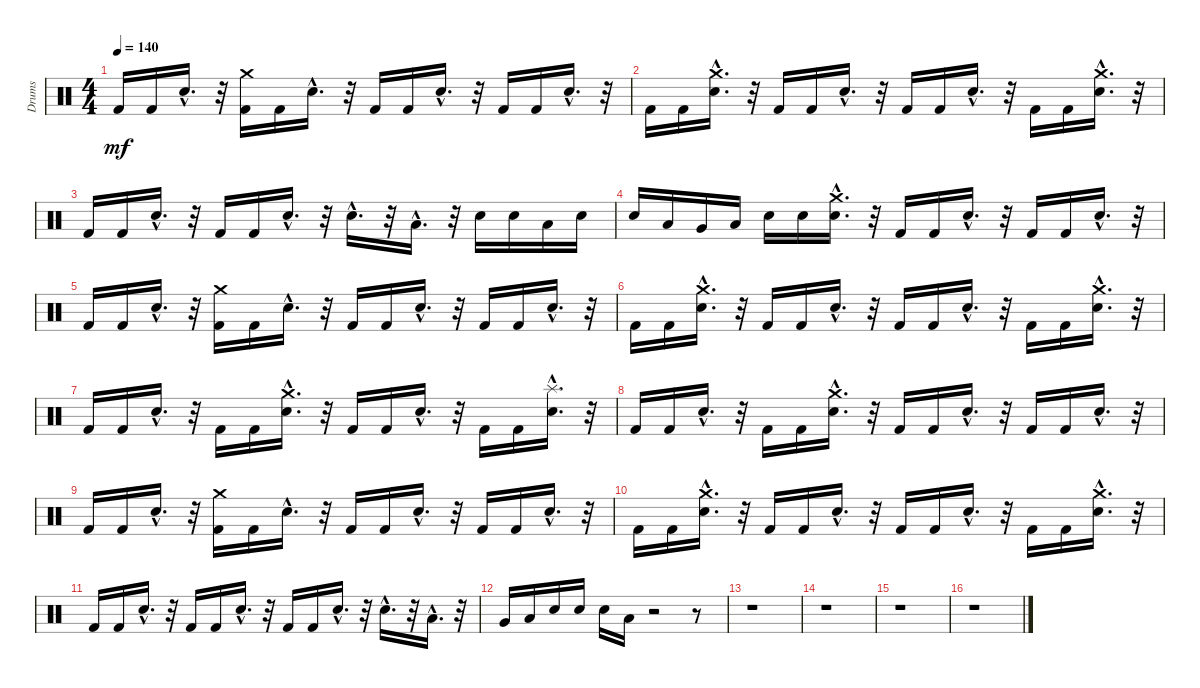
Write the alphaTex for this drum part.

\track ("Drums" "Drums") {instrument percussion}
\staff {score}
\articulation defaults
\ts (4 4)
\tempo 140
\clef neutral
\ks c "Kick (hit) 2".16{dy mf} "Kick (hit) 2".16 "Electric Snare (hit)"{hac}.16{d}
r.32 ("Crash medium (hit)" "Kick (hit) 2").16 "Kick (hit) 2".16 "Electric Snare (hit)"{hac}.16{d} r.32 "Kick (hit) 2".16 "Kick (hit) 2".16 "Electric Snare (hit)"{hac}.16{d} r.32 "Kick (hit) 2".16 "Kick (hit) 2".16 "Electric Snare (hit)"{hac}.16{d} r.32 |
"Kick (hit) 2".16 "Kick (hit) 2".16 ("Crash medium (hit)"{hac} "Electric Snare (hit)"{hac}).16{d} r.32 "Kick (hit) 2".16 "Kick (hit) 2".16 "Electric Snare (hit)"{hac}.16{d} r.32 "Kick (hit) 2".16 "Kick (hit) 2".16 "Electric Snare (hit)"{hac}.16{d} r.32 "Kick (hit) 2".16 "Kick (hit) 2".16 ("Electric Snare (hit)"{hac} "Crash medium (hit)"{hac}).16{d} r.32 |
"Kick (hit) 2".16 "Kick (hit) 2".16 "Electric Snare (hit)"{hac}.16{d} r.32 "Kick (hit) 2".16 "Kick (hit) 2".16 "Snare (hit) 2"{hac}.16{d} r.32 "Electric Snare (hit)"{hac}.16{d} r.32 "Low Floor Tom (hit)"{hac}.16{d} r.32 "Snare (hit) 2".16 "Electric Snare (hit)".16 "Low Floor Tom (hit)".16 "Snare (hit) 2".16 |
"Electric Snare (hit)".16 "Low Floor Tom (hit)".16 "Very Low Tom (hit)".16 "Low Floor Tom (hit)".16 "Electric Snare (hit)".16 "Snare (hit) 2".16 ("Crash medium (hit)"{hac} "Electric Snare (hit)"{hac}).16{d} r.32 "Kick (hit) 2".16 "Kick (hit) 2".16 "Electric Snare (hit)"{hac}.16{d} r.32 "Kick (hit) 2".16 "Kick (hit) 2".16 "Electric Snare (hit)"{hac}.16{d} r.32 |
"Kick (hit) 2".16 "Kick (hit) 2".16 "Electric Snare (hit)"{hac}.16{d} r.32 ("Crash medium (hit)" "Kick (hit) 2").16 "Kick (hit) 2".16 "Electric Snare (hit)"{hac}.16{d} r.32 "Kick (hit) 2".16 "Kick (hit) 2".16 "Electric Snare (hit)"{hac}.16{d} r.32 "Kick (hit) 2".16 "Kick (hit) 2".16 "Electric Snare (hit)"{hac}.16{d} r.32 |
"Kick (hit) 2".16 "Kick (hit) 2".16 ("Crash medium (hit)"{hac} "Electric Snare (hit)"{hac}).16{d} r.32 "Kick (hit) 2".16 "Kick (hit) 2".16 "Electric Snare (hit)"{hac}.16{d} r.32 "Kick (hit) 2".16 "Kick (hit) 2".16 "Electric Snare (hit)"{hac}.16{d} r.32 "Kick (hit) 2".16 "Kick (hit) 2".16 ("Electric Snare (hit)"{hac} "Crash medium (hit)"{hac}).16{d} r.32 |
"Kick (hit) 2".16 "Kick (hit) 2".16 "Electric Snare (hit)"{hac}.16{d} r.32 "Kick (hit) 2".16 "Kick (hit) 2".16 ("Crash medium (hit)"{hac} "Snare (hit) 2"{hac}).16{d} r.32 "Kick (hit) 2".16 "Kick (hit) 2".16 "Snare (hit) 2"{hac}.16{d} r.32 "Kick (hit) 2".16 "Kick (hit) 2".16 ("Splash (hit)"{hac} "Snare (hit) 2"{hac}).16{d} r.32 |
"Kick (hit) 2".16 "Kick (hit) 2".16 "Snare (hit) 2"{hac}.16{d} r.32 "Kick (hit) 2".16 "Kick (hit) 2".16 ("Crash medium (hit)"{hac} "Electric Snare (hit)"{hac}).16{d} r.32 "Kick (hit) 2".16 "Kick (hit) 2".16 "Electric Snare (hit)"{hac}.16{d} r.32 "Kick (hit) 2".16 "Kick (hit) 2".16 "Electric Snare (hit)"{hac}.16{d} r.32 |
"Kick (hit) 2".16 "Kick (hit) 2".16 "Electric Snare (hit)"{hac}.16{d} r.32 ("Crash medium (hit)" "Kick (hit) 2").16 "Kick (hit) 2".16 "Electric Snare (hit)"{hac}.16{d} r.32 "Kick (hit) 2".16 "Kick (hit) 2".16 "Electric Snare (hit)"{hac}.16{d} r.32 "Kick (hit) 2".16 "Kick (hit) 2".16 "Electric Snare (hit)"{hac}.16{d} r.32 |
"Kick (hit) 2".16 "Kick (hit) 2".16 ("Crash medium (hit)"{hac} "Electric Snare (hit)"{hac}).16{d} r.32 "Kick (hit) 2".16 "Kick (hit) 2".16 "Electric Snare (hit)"{hac}.16{d} r.32 "Kick (hit) 2".16 "Kick (hit) 2".16 "Electric Snare (hit)"{hac}.16{d} r.32 "Kick (hit) 2".16 "Kick (hit) 2".16 ("Electric Snare (hit)"{hac} "Crash medium (hit)"{hac}).16{d} r.32 |
"Kick (hit) 2".16 "Kick (hit) 2".16 "Electric Snare (hit)"{hac}.16{d} r.32 "Kick (hit) 2".16 "Kick (hit) 2".16 "Snare (hit) 2"{hac}.16{d} r.32 "Kick (hit) 2".16 "Kick (hit) 2".16 "Snare (hit) 2"{hac}.16{d} r.32 "Electric Snare (hit)"{hac}.16{d} r.32 "Low Floor Tom (hit)"{hac}.16{d} r.32 |
"Very Low Tom (hit)".16 "Low Floor Tom (hit)".16 "Electric Snare (hit)".16 "Snare (hit) 2".16 "Electric Snare (hit)".16 "Low Floor Tom (hit)".16 r.2 r.8 |
r.1 |
r.1 |
r.1 |
r.1
